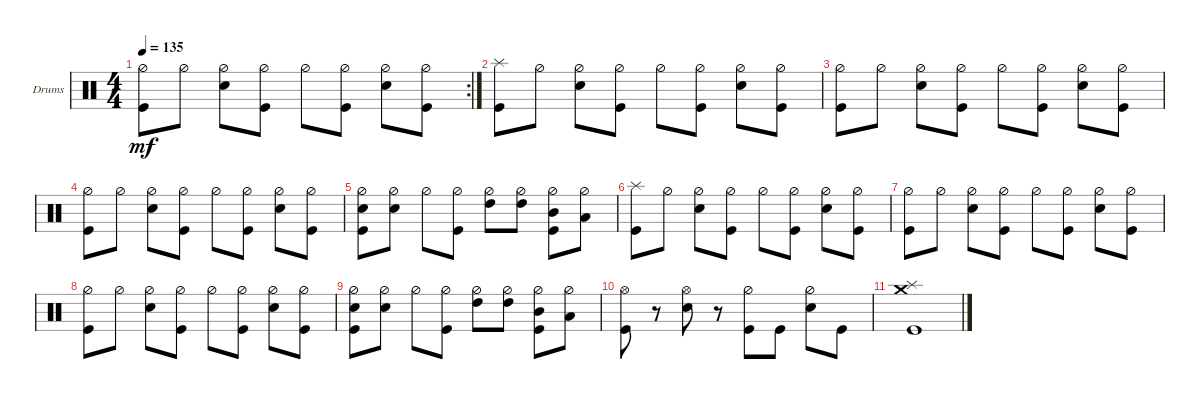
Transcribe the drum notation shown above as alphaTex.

\defaultSystemsLayout 4
\bracketExtendMode groupsimilarinstruments
\firstSystemTrackNameOrientation horizontal
\otherSystemsTrackNameOrientation horizontal
\track ("Drumkit" "Drums") {instrument percussion}
\staff {score}
\articulation defaults
\rc 2
\ts (4 4)
\tempo 135
\clef neutral
\ks c
("Kick (hit)" "Hi-Hat (half)").8{dy mf} "Hi-Hat (half)".8 ("Snare (hit) 2" "Hi-Hat (half)").8 ("Kick (hit)" "Hi-Hat (half)").8 "Hi-Hat (half)".8 ("Kick (hit)" "Hi-Hat (half)").8 ("Snare (hit) 2" "Hi-Hat (half)").8 ("Kick (hit)" "Hi-Hat (half)").8 |
("Kick (hit)" "Splash (hit)").8 "Hi-Hat (half)".8 ("Snare (hit) 2" "Hi-Hat (half)").8 ("Kick (hit)" "Hi-Hat (half)").8 "Hi-Hat (half)".8 ("Kick (hit)" "Hi-Hat (half)").8 ("Snare (hit) 2" "Hi-Hat (half)").8 ("Kick (hit)" "Hi-Hat (half)").8 |
("Kick (hit)" "Hi-Hat (half)").8 "Hi-Hat (half)".8 ("Snare (hit) 2" "Hi-Hat (half)").8 ("Kick (hit)" "Hi-Hat (half)").8 "Hi-Hat (half)".8 ("Kick (hit)" "Hi-Hat (half)").8 ("Snare (hit) 2" "Hi-Hat (half)").8 ("Kick (hit)" "Hi-Hat (half)").8 |
("Kick (hit)" "Hi-Hat (half)").8 "Hi-Hat (half)".8 ("Snare (hit) 2" "Hi-Hat (half)").8 ("Kick (hit)" "Hi-Hat (half)").8 "Hi-Hat (half)".8 ("Kick (hit)" "Hi-Hat (half)").8 ("Snare (hit) 2" "Hi-Hat (half)").8 ("Kick (hit)" "Hi-Hat (half)").8 |
("Kick (hit)" "Hi-Hat (half)" "Snare (hit) 2").8 ("Hi-Hat (half)" "Snare (hit) 2").8 "Hi-Hat (half)".8 ("Kick (hit)" "Hi-Hat (half)").8 ("Hi-Hat (half)" "High Tom (hit)").8 ("Hi-Hat (half)" "High Tom (hit)").8 ("Hi-Hat (half)" "Mid Tom (hit)" "Kick (hit)").8 ("Hi-Hat (half)" "Low Tom (hit)").8 |
("Kick (hit)" "Splash (hit)").8 "Hi-Hat (half)".8 ("Snare (hit) 2" "Hi-Hat (half)").8 ("Kick (hit)" "Hi-Hat (half)").8 "Hi-Hat (half)".8 ("Kick (hit)" "Hi-Hat (half)").8 ("Snare (hit) 2" "Hi-Hat (half)").8 ("Kick (hit)" "Hi-Hat (half)").8 |
("Kick (hit)" "Hi-Hat (half)").8 "Hi-Hat (half)".8 ("Snare (hit) 2" "Hi-Hat (half)").8 ("Kick (hit)" "Hi-Hat (half)").8 "Hi-Hat (half)".8 ("Kick (hit)" "Hi-Hat (half)").8 ("Snare (hit) 2" "Hi-Hat (half)").8 ("Kick (hit)" "Hi-Hat (half)").8 |
("Kick (hit)" "Hi-Hat (half)").8 "Hi-Hat (half)".8 ("Snare (hit) 2" "Hi-Hat (half)").8 ("Kick (hit)" "Hi-Hat (half)").8 "Hi-Hat (half)".8 ("Kick (hit)" "Hi-Hat (half)").8 ("Snare (hit) 2" "Hi-Hat (half)").8 ("Kick (hit)" "Hi-Hat (half)").8 |
("Kick (hit)" "Hi-Hat (half)" "Snare (hit) 2").8 ("Hi-Hat (half)" "Snare (hit) 2").8 "Hi-Hat (half)".8 ("Kick (hit)" "Hi-Hat (half)").8 ("Hi-Hat (half)" "High Tom (hit)").8 ("Hi-Hat (half)" "High Tom (hit)").8 ("Hi-Hat (half)" "Mid Tom (hit)" "Kick (hit)").8 ("Hi-Hat (half)" "Low Tom (hit)").8 |
("Kick (hit)" "Hi-Hat (open)").8 r.8 ("Snare (hit) 2" "Hi-Hat (open)").8 r.8 ("Hi-Hat (half)" "Kick (hit)").8 "Kick (hit)".8 ("Snare (hit) 2" "Hi-Hat (half)").8 "Kick (hit)".8 |
("Kick (hit)" "Splash (hit)" "Crash medium (hit)").1
